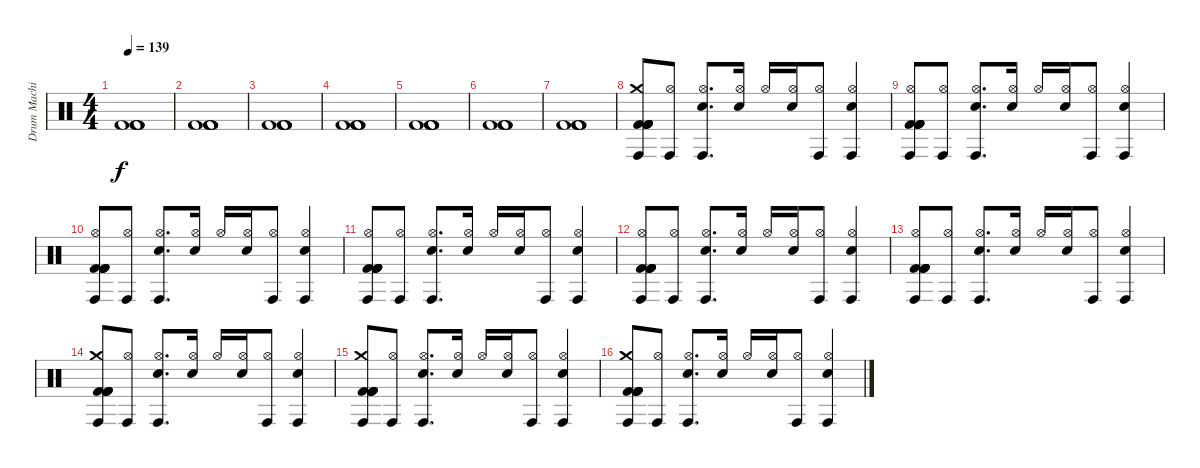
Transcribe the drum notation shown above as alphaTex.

\track ("Drum Machine" "Drum Machi") {instrument percussion}
\staff {score}
\articulation defaults
\ts (4 4)
\tempo 139
\clef neutral
\ks c
("Kick (hit) 2" "Kick (hit) 2" "Kick (hit) 2" "Kick (hit) 2").1{dy f} |
("Kick (hit) 2" "Kick (hit) 2" "Kick (hit) 2" "Kick (hit) 2").1 |
("Kick (hit) 2" "Kick (hit) 2" "Kick (hit) 2" "Kick (hit) 2").1 |
("Kick (hit) 2" "Kick (hit) 2" "Kick (hit) 2" "Kick (hit) 2").1 |
("Kick (hit) 2" "Kick (hit) 2" "Kick (hit) 2" "Kick (hit) 2").1 |
("Kick (hit) 2" "Kick (hit) 2" "Kick (hit) 2" "Kick (hit) 2").1 |
("Kick (hit) 2" "Kick (hit) 2" "Kick (hit) 2" "Kick (hit) 2").1 |
("Conga high (hit)" "Crash medium (hit)" "Kick (hit) 2" "Kick (hit) 2" "Kick (hit) 2" "Kick (hit) 2").8 ("Conga high (hit)" "Hi-Hat (open)").8 ("Conga high (hit)" "Hi-Hat (open)" "Electric Snare (hit)").8{d} ("Hi-Hat (open)" "Electric Snare (hit)").16 "Hi-Hat (open)".16 ("Hi-Hat (open)" "Electric Snare (hit)").16 ("Conga high (hit)" "Hi-Hat (open)").8 ("Conga high (hit)" "Hi-Hat (open)" "Electric Snare (hit)").4 |
("Conga high (hit)" "Hi-Hat (open)" "Kick (hit) 2" "Kick (hit) 2" "Kick (hit) 2" "Kick (hit) 2").8 ("Conga high (hit)" "Hi-Hat (open)").8 ("Conga high (hit)" "Hi-Hat (open)" "Electric Snare (hit)").8{d} ("Hi-Hat (open)" "Electric Snare (hit)").16 "Hi-Hat (open)".16 ("Hi-Hat (open)" "Electric Snare (hit)").16 ("Conga high (hit)" "Hi-Hat (open)").8 ("Conga high (hit)" "Hi-Hat (open)" "Electric Snare (hit)").4 |
("Conga high (hit)" "Hi-Hat (open)" "Kick (hit) 2" "Kick (hit) 2" "Kick (hit) 2" "Kick (hit) 2").8 ("Conga high (hit)" "Hi-Hat (open)").8 ("Conga high (hit)" "Hi-Hat (open)" "Electric Snare (hit)").8{d} ("Hi-Hat (open)" "Electric Snare (hit)").16 "Hi-Hat (open)".16 ("Hi-Hat (open)" "Electric Snare (hit)").16 ("Conga high (hit)" "Hi-Hat (open)").8 ("Conga high (hit)" "Hi-Hat (open)" "Electric Snare (hit)").4 |
("Conga high (hit)" "Hi-Hat (open)" "Kick (hit) 2" "Kick (hit) 2" "Kick (hit) 2" "Kick (hit) 2").8 ("Conga high (hit)" "Hi-Hat (open)").8 ("Conga high (hit)" "Hi-Hat (open)" "Electric Snare (hit)").8{d} ("Hi-Hat (open)" "Electric Snare (hit)").16 "Hi-Hat (open)".16 ("Hi-Hat (open)" "Electric Snare (hit)").16 ("Conga high (hit)" "Hi-Hat (open)").8 ("Conga high (hit)" "Hi-Hat (open)" "Electric Snare (hit)").4 |
("Conga high (hit)" "Hi-Hat (open)" "Kick (hit) 2" "Kick (hit) 2" "Kick (hit) 2" "Kick (hit) 2").8 ("Conga high (hit)" "Hi-Hat (open)").8 ("Conga high (hit)" "Hi-Hat (open)" "Electric Snare (hit)").8{d} ("Hi-Hat (open)" "Electric Snare (hit)").16 "Hi-Hat (open)".16 ("Hi-Hat (open)" "Electric Snare (hit)").16 ("Conga high (hit)" "Hi-Hat (open)").8 ("Conga high (hit)" "Hi-Hat (open)" "Electric Snare (hit)").4 |
("Conga high (hit)" "Hi-Hat (open)" "Kick (hit) 2" "Kick (hit) 2" "Kick (hit) 2" "Kick (hit) 2").8 ("Conga high (hit)" "Hi-Hat (open)").8 ("Conga high (hit)" "Hi-Hat (open)" "Electric Snare (hit)").8{d} ("Hi-Hat (open)" "Electric Snare (hit)").16 "Hi-Hat (open)".16 ("Hi-Hat (open)" "Electric Snare (hit)").16 ("Conga high (hit)" "Hi-Hat (open)").8 ("Conga high (hit)" "Hi-Hat (open)" "Electric Snare (hit)").4 |
("Conga high (hit)" "Crash medium (hit)" "Kick (hit) 2" "Kick (hit) 2" "Kick (hit) 2" "Kick (hit) 2").8 ("Conga high (hit)" "Hi-Hat (open)").8 ("Conga high (hit)" "Hi-Hat (open)" "Electric Snare (hit)").8{d} ("Hi-Hat (open)" "Electric Snare (hit)").16 "Hi-Hat (open)".16 ("Hi-Hat (open)" "Electric Snare (hit)").16 ("Conga high (hit)" "Hi-Hat (open)").8 ("Conga high (hit)" "Hi-Hat (open)" "Electric Snare (hit)").4 |
("Conga high (hit)" "Crash medium (hit)" "Kick (hit) 2" "Kick (hit) 2" "Kick (hit) 2" "Kick (hit) 2").8 ("Conga high (hit)" "Hi-Hat (open)").8 ("Conga high (hit)" "Hi-Hat (open)" "Electric Snare (hit)").8{d} ("Hi-Hat (open)" "Electric Snare (hit)").16 "Hi-Hat (open)".16 ("Hi-Hat (open)" "Electric Snare (hit)").16 ("Conga high (hit)" "Hi-Hat (open)").8 ("Conga high (hit)" "Hi-Hat (open)" "Electric Snare (hit)").4 |
("Conga high (hit)" "Crash medium (hit)" "Kick (hit) 2" "Kick (hit) 2" "Kick (hit) 2" "Kick (hit) 2").8 ("Conga high (hit)" "Hi-Hat (open)").8 ("Conga high (hit)" "Hi-Hat (open)" "Electric Snare (hit)").8{d} ("Hi-Hat (open)" "Electric Snare (hit)").16 "Hi-Hat (open)".16 ("Hi-Hat (open)" "Electric Snare (hit)").16 ("Conga high (hit)" "Hi-Hat (open)").8 ("Conga high (hit)" "Hi-Hat (open)" "Electric Snare (hit)").4
